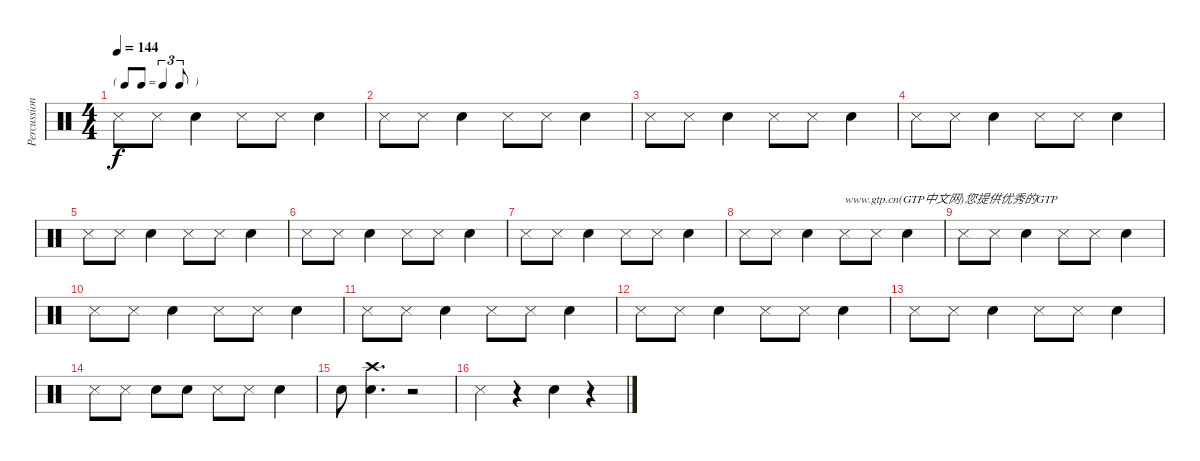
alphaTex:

\track ("Percussions" "Percussion") {instrument percussion}
\staff {score}
\articulation defaults
\ts (4 4)
\tf triplet8th
\tempo 144
\clef neutral
\ks c "Snare (side stick) 3".8{dy f} "Snare (side stick) 3".8 "Snare (hit) 2".4 "Snare (side stick) 3".8 "Snare (side stick) 3".8 "Snare (hit) 2".4
|
"Snare (side stick) 3".8 "Snare (side stick) 3".8 "Snare (hit) 2".4 "Snare (side stick) 3".8 "Snare (side stick) 3".8 "Snare (hit) 2".4 |
"Snare (side stick) 3".8 "Snare (side stick) 3".8 "Snare (hit) 2".4 "Snare (side stick) 3".8 "Snare (side stick) 3".8 "Snare (hit) 2".4 |
"Snare (side stick) 3".8 "Snare (side stick) 3".8 "Snare (hit) 2".4 "Snare (side stick) 3".8 "Snare (side stick) 3".8 "Snare (hit) 2".4 |
"Snare (side stick) 3".8 "Snare (side stick) 3".8 "Snare (hit) 2".4 "Snare (side stick) 3".8 "Snare (side stick) 3".8 "Snare (hit) 2".4 |
"Snare (side stick) 3".8 "Snare (side stick) 3".8 "Snare (hit) 2".4 "Snare (side stick) 3".8 "Snare (side stick) 3".8 "Snare (hit) 2".4 |
"Snare (side stick) 3".8 "Snare (side stick) 3".8 "Snare (hit) 2".4 "Snare (side stick) 3".8 "Snare (side stick) 3".8 "Snare (hit) 2".4 |
"Snare (side stick) 3".8 "Snare (side stick) 3".8 "Snare (hit) 2".4 "Snare (side stick) 3".8{txt "www.gtp.cn(GTP中文网)您提供优秀的GTP"} "Snare (side stick) 3".8 "Snare (hit) 2".4 |
"Snare (side stick) 3".8 "Snare (side stick) 3".8 "Snare (hit) 2".4 "Snare (side stick) 3".8 "Snare (side stick) 3".8 "Snare (hit) 2".4 |
"Snare (side stick) 3".8 "Snare (side stick) 3".8 "Snare (hit) 2".4 "Snare (side stick) 3".8 "Snare (side stick) 3".8 "Snare (hit) 2".4 |
"Snare (side stick) 3".8 "Snare (side stick) 3".8 "Snare (hit) 2".4 "Snare (side stick) 3".8 "Snare (side stick) 3".8 "Snare (hit) 2".4 |
"Snare (side stick) 3".8 "Snare (side stick) 3".8 "Snare (hit) 2".4 "Snare (side stick) 3".8 "Snare (side stick) 3".8 "Snare (hit) 2".4 |
"Snare (side stick) 3".8 "Snare (side stick) 3".8 "Snare (hit) 2".4 "Snare (side stick) 3".8 "Snare (side stick) 3".8 "Snare (hit) 2".4 |
"Snare (side stick) 3".8 "Snare (side stick) 3".8 "Snare (hit) 2".8 "Snare (hit) 2".8 "Snare (side stick) 3".8 "Snare (side stick) 3".8 "Snare (hit) 2".4 |
"Snare (hit) 2".8 ("Snare (hit) 2" "Crash high (hit)").4{d} r.2 |
"Snare (side stick) 3".4 r.4 "Snare (hit) 2".4 r.4
